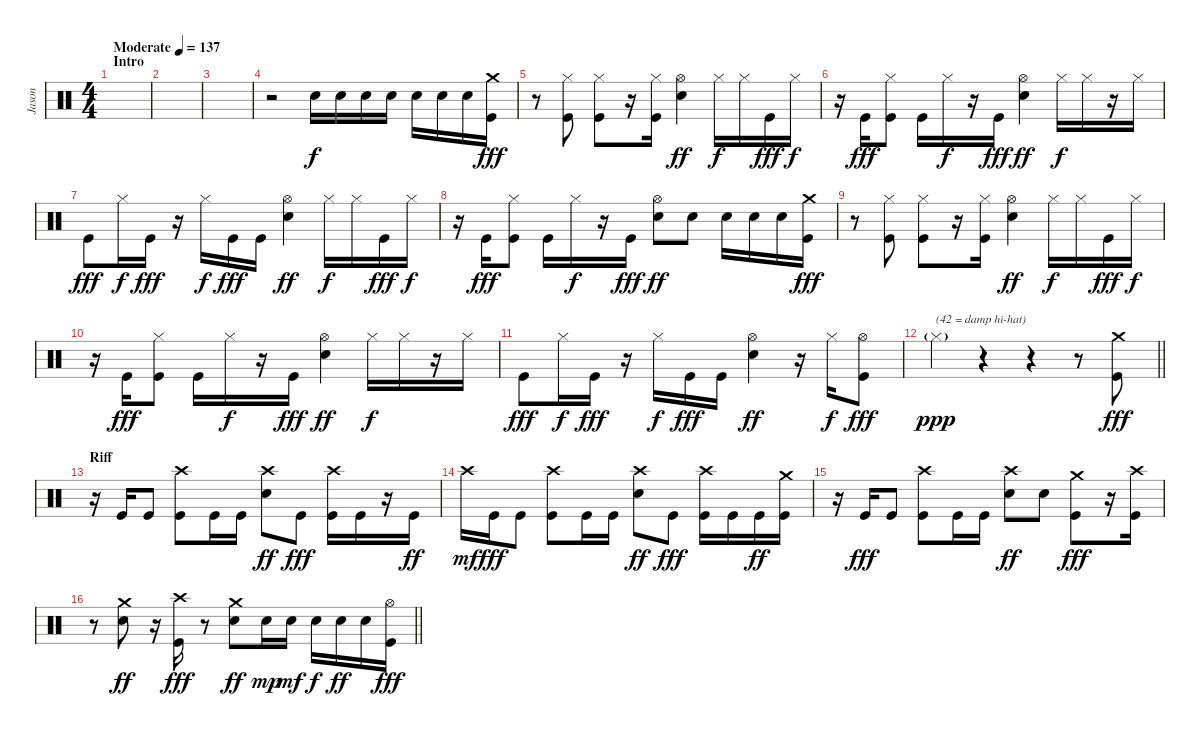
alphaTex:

\track ("Jason" "Jason") {instrument percussion}
\staff {score}
\articulation defaults
\ts (4 4)
\section ("" "Intro")
\tempo (137 "Moderate")
\clef neutral
\ks c
|
|
|
r.2 "Electric Snare (hit)".16 "Electric Snare (hit)".16 "Electric Snare (hit)".16 "Electric Snare (hit)".16 "Electric Snare (hit)".16 "Electric Snare (hit)".16 "Electric Snare (hit)".16 ("Crash medium (hit)" "Kick (hit)").16{dy fff} |
r.8 ("Hi-Hat (closed)" "Kick (hit)").8 ("Hi-Hat (closed)" "Kick (hit)").8 r.16 ("Hi-Hat (closed)" "Kick (hit)").16 ("Hi-Hat (open)" "Electric Snare (hit)").4{dy ff} "Hi-Hat (closed)".16{dy f} "Hi-Hat (closed)".16 "Kick (hit)".16{dy fff} "Hi-Hat (closed)".16{dy f} |
r.16 "Kick (hit)".16{dy fff} ("Hi-Hat (closed)" "Kick (hit)").8 "Kick (hit)".16 "Hi-Hat (closed)".16{dy f} r.16 "Kick (hit)".16{dy fff} ("Hi-Hat (open)" "Electric Snare (hit)").4{dy ff} "Hi-Hat (closed)".16{dy f} "Hi-Hat (closed)".16 r.16 "Hi-Hat (closed)".16 |
"Kick (hit)".8{dy fff} "Hi-Hat (closed)".16{dy f} "Kick (hit)".16{dy fff} r.16 "Hi-Hat (closed)".16{dy f} "Kick (hit)".16{dy fff} "Kick (hit)".16 ("Hi-Hat (open)" "Electric Snare (hit)").4{dy ff} "Hi-Hat (closed)".16{dy f} "Hi-Hat (closed)".16 "Kick (hit)".16{dy fff} "Hi-Hat (closed)".16{dy f} |
r.16 "Kick (hit)".16{dy fff} ("Hi-Hat (closed)" "Kick (hit)").8 "Kick (hit)".16 "Hi-Hat (closed)".16{dy f} r.16 "Kick (hit)".16{dy fff} ("Hi-Hat (open)" "Electric Snare (hit)").8{dy ff} "Electric Snare (hit)".8 "Electric Snare (hit)".16 "Electric Snare (hit)".16 "Electric Snare (hit)".16 ("Crash medium (hit)" "Kick (hit)").16{dy fff} |
r.8 ("Hi-Hat (closed)" "Kick (hit)").8 ("Hi-Hat (closed)" "Kick (hit)").8 r.16 ("Hi-Hat (closed)" "Kick (hit)").16 ("Hi-Hat (open)" "Electric Snare (hit)").4{dy ff} "Hi-Hat (closed)".16{dy f} "Hi-Hat (closed)".16 "Kick (hit)".16{dy fff} "Hi-Hat (closed)".16{dy f} |
r.16 "Kick (hit)".16{dy fff} ("Hi-Hat (closed)" "Kick (hit)").8 "Kick (hit)".16 "Hi-Hat (closed)".16{dy f} r.16 "Kick (hit)".16{dy fff} ("Hi-Hat (open)" "Electric Snare (hit)").4{dy ff} "Hi-Hat (closed)".16{dy f} "Hi-Hat (closed)".16 r.16 "Hi-Hat (closed)".16 |
"Kick (hit)".8{dy fff} "Hi-Hat (closed)".16{dy f} "Kick (hit)".16{dy fff} r.16 "Hi-Hat (closed)".16{dy f} "Kick (hit)".16{dy fff} "Kick (hit)".16 ("Hi-Hat (open)" "Electric Snare (hit)").4{dy ff} r.16 "Hi-Hat (closed)".16{dy f} ("Hi-Hat (open)" "Kick (hit)").8{dy fff} |
\barLineRight lightlight "Hi-Hat (closed)"{g}.4{txt "(42 = damp hi-hat)" dy ppp}
r.4 r.4 r.8 ("Crash medium (hit)" "Kick (hit)").8{dy fff} |
\section ("" "Riff")
r.16 "Kick (hit)".16 "Kick (hit)".8 ("Crash high (hit)" "Kick (hit)").8 "Kick (hit)".16 "Kick (hit)".16 ("Crash high (hit)" "Electric Snare (hit)").8{dy ff} "Kick (hit)".8{dy fff} ("Crash high (hit)" "Kick (hit)").16 "Kick (hit)".16 r.16 "Kick (hit)".16{dy ff} |
"Crash high (hit)".16{dy mf} "Kick (hit)".16{dy fff} "Kick (hit)".8 ("Crash high (hit)" "Kick (hit)").8 "Kick (hit)".16 "Kick (hit)".16 ("Crash high (hit)" "Electric Snare (hit)").8{dy ff} "Kick (hit)".8{dy fff} ("Crash high (hit)" "Kick (hit)").16 "Kick (hit)".16 "Kick (hit)".16{dy ff} ("Crash medium (hit)" "Kick (hit)").16 |
r.16 "Kick (hit)".16{dy fff} "Kick (hit)".8 ("Crash high (hit)" "Kick (hit)").8 "Kick (hit)".16 "Kick (hit)".16 ("Crash high (hit)" "Electric Snare (hit)").8{dy ff} "Electric Snare (hit)".8 ("Crash medium (hit)" "Kick (hit)").8{dy fff} r.16 ("Crash high (hit)" "Kick (hit)").16 |
\barLineRight lightlight
r.8 ("Crash medium (hit)" "Electric Snare (hit)").8{dy ff} r.16 ("Crash high (hit)" "Kick (hit)").16{dy fff} r.8 ("Crash medium (hit)" "Electric Snare (hit)").8{dy ff} "Electric Snare (hit)".16{dy mp} "Electric Snare (hit)".16{dy mf} "Electric Snare (hit)".16{dy f} "Electric Snare (hit)".16{dy ff} "Electric Snare (hit)".16 ("Hi-Hat (open)" "Kick (hit)").16{dy fff}
